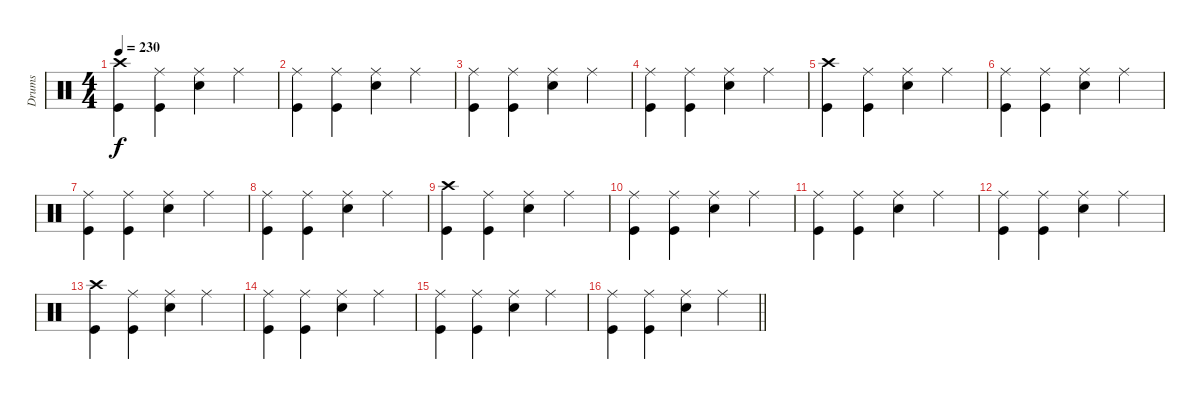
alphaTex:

\track ("Drums" "Drums") {instrument percussion}
\staff {score}
\articulation defaults
\ts (4 4)
\tempo 230
\clef neutral
\ks c
("Crash high (hit)" "Kick (hit)").4{dy f} ("Ride (middle)" "Kick (hit)").4 ("Ride (middle)" "Snare (hit) 2").4 "Ride (middle)".4 |
("Ride (middle)" "Kick (hit)").4 ("Ride (middle)" "Kick (hit)").4 ("Ride (middle)" "Snare (hit) 2").4 "Ride (middle)".4 |
("Ride (middle)" "Kick (hit)").4 ("Ride (middle)" "Kick (hit)").4 ("Ride (middle)" "Snare (hit) 2").4 "Ride (middle)".4 |
("Ride (middle)" "Kick (hit)").4 ("Ride (middle)" "Kick (hit)").4 ("Ride (middle)" "Snare (hit) 2").4 "Ride (middle)".4 |
("Crash high (hit)" "Kick (hit)").4 ("Ride (middle)" "Kick (hit)").4 ("Ride (middle)" "Snare (hit) 2").4 "Ride (middle)".4 |
("Ride (middle)" "Kick (hit)").4 ("Ride (middle)" "Kick (hit)").4 ("Ride (middle)" "Snare (hit) 2").4 "Ride (middle)".4 |
("Ride (middle)" "Kick (hit)").4 ("Ride (middle)" "Kick (hit)").4 ("Ride (middle)" "Snare (hit) 2").4 "Ride (middle)".4 |
("Ride (middle)" "Kick (hit)").4 ("Ride (middle)" "Kick (hit)").4 ("Ride (middle)" "Snare (hit) 2").4 "Ride (middle)".4 |
("Crash high (hit)" "Kick (hit)").4 ("Ride (middle)" "Kick (hit)").4 ("Ride (middle)" "Snare (hit) 2").4 "Ride (middle)".4 |
("Ride (middle)" "Kick (hit)").4 ("Ride (middle)" "Kick (hit)").4 ("Ride (middle)" "Snare (hit) 2").4 "Ride (middle)".4 |
("Ride (middle)" "Kick (hit)").4 ("Ride (middle)" "Kick (hit)").4 ("Ride (middle)" "Snare (hit) 2").4 "Ride (middle)".4 |
("Ride (middle)" "Kick (hit)").4 ("Ride (middle)" "Kick (hit)").4 ("Ride (middle)" "Snare (hit) 2").4 "Ride (middle)".4 |
("Crash high (hit)" "Kick (hit)").4 ("Ride (middle)" "Kick (hit)").4 ("Ride (middle)" "Snare (hit) 2").4 "Ride (middle)".4 |
("Ride (middle)" "Kick (hit)").4 ("Ride (middle)" "Kick (hit)").4 ("Ride (middle)" "Snare (hit) 2").4 "Ride (middle)".4 |
("Ride (middle)" "Kick (hit)").4 ("Ride (middle)" "Kick (hit)").4 ("Ride (middle)" "Snare (hit) 2").4 "Ride (middle)".4 |
\barLineRight lightlight
("Ride (middle)" "Kick (hit)").4 ("Ride (middle)" "Kick (hit)").4 ("Ride (middle)" "Snare (hit) 2").4 "Ride (middle)".4
